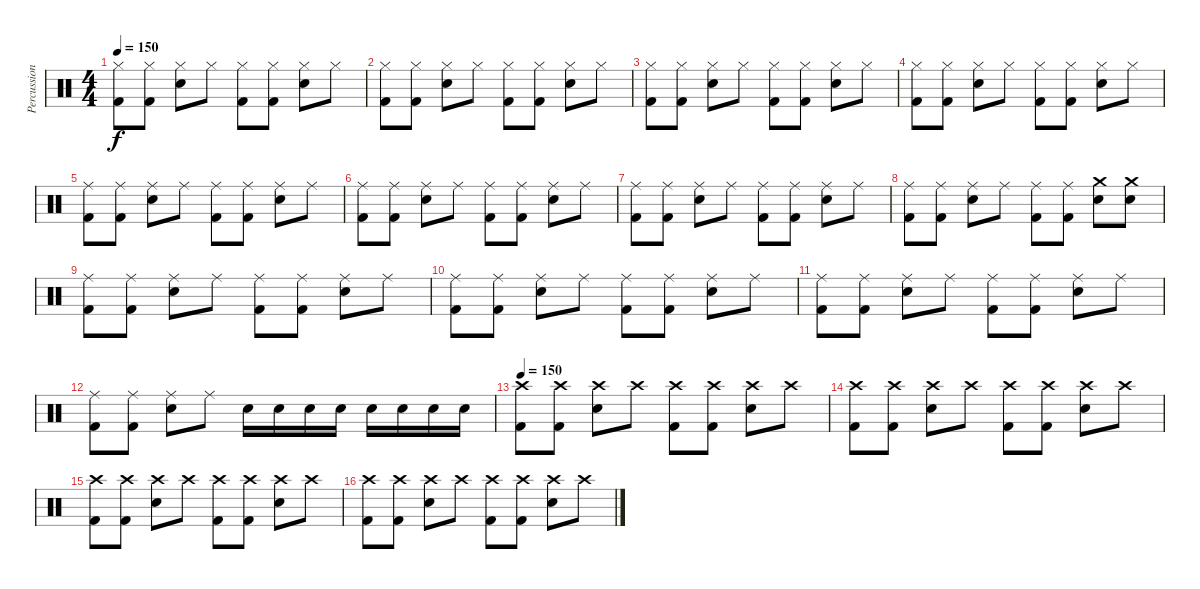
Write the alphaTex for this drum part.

\track ("Percussion" "Percussion") {instrument percussion}
\staff {score}
\articulation defaults
\ts (4 4)
\tempo 150
\clef neutral
\ks c
("Hi-Hat (closed)" "Kick (hit) 2").8{dy f} ("Hi-Hat (closed)" "Kick (hit) 2").8 ("Hi-Hat (closed)" "Electric Snare (hit)").8 "Hi-Hat (closed)".8 ("Hi-Hat (closed)" "Kick (hit) 2").8 ("Hi-Hat (closed)" "Kick (hit) 2").8 ("Hi-Hat (closed)" "Electric Snare (hit)").8 "Hi-Hat (closed)".8 |
("Hi-Hat (closed)" "Kick (hit) 2").8 ("Hi-Hat (closed)" "Kick (hit) 2").8 ("Hi-Hat (closed)" "Electric Snare (hit)").8 "Hi-Hat (closed)".8 ("Hi-Hat (closed)" "Kick (hit) 2").8 ("Hi-Hat (closed)" "Kick (hit) 2").8 ("Hi-Hat (closed)" "Electric Snare (hit)").8 "Hi-Hat (closed)".8 |
("Hi-Hat (closed)" "Kick (hit) 2").8 ("Hi-Hat (closed)" "Kick (hit) 2").8 ("Hi-Hat (closed)" "Electric Snare (hit)").8 "Hi-Hat (closed)".8 ("Hi-Hat (closed)" "Kick (hit) 2").8 ("Hi-Hat (closed)" "Kick (hit) 2").8 ("Hi-Hat (closed)" "Electric Snare (hit)").8 "Hi-Hat (closed)".8 |
("Hi-Hat (closed)" "Kick (hit) 2").8 ("Hi-Hat (closed)" "Kick (hit) 2").8 ("Hi-Hat (closed)" "Electric Snare (hit)").8 "Hi-Hat (closed)".8 ("Hi-Hat (closed)" "Kick (hit) 2").8 ("Hi-Hat (closed)" "Kick (hit) 2").8 ("Hi-Hat (closed)" "Electric Snare (hit)").8 "Hi-Hat (closed)".8 |
("Ride (middle)" "Kick (hit) 2").8 ("Ride (middle)" "Kick (hit) 2").8 ("Ride (middle)" "Electric Snare (hit)").8 "Ride (middle)".8 ("Ride (middle)" "Kick (hit) 2").8 ("Ride (middle)" "Kick (hit) 2").8 ("Ride (middle)" "Electric Snare (hit)").8 "Ride (middle)".8 |
("Ride (middle)" "Kick (hit) 2").8 ("Ride (middle)" "Kick (hit) 2").8 ("Ride (middle)" "Electric Snare (hit)").8 "Ride (middle)".8 ("Ride (middle)" "Kick (hit) 2").8 ("Ride (middle)" "Kick (hit) 2").8 ("Ride (middle)" "Electric Snare (hit)").8 "Ride (middle)".8 |
("Ride (middle)" "Kick (hit) 2").8 ("Ride (middle)" "Kick (hit) 2").8 ("Ride (middle)" "Electric Snare (hit)").8 "Ride (middle)".8 ("Ride (middle)" "Kick (hit) 2").8 ("Ride (middle)" "Kick (hit) 2").8 ("Ride (middle)" "Electric Snare (hit)").8 "Ride (middle)".8 |
("Ride (middle)" "Kick (hit) 2").8 ("Ride (middle)" "Kick (hit) 2").8 ("Ride (middle)" "Electric Snare (hit)").8 "Ride (middle)".8 ("Ride (middle)" "Kick (hit) 2").8 ("Ride (middle)" "Kick (hit) 2").8 ("Crash medium (hit)" "Electric Snare (hit)").8 ("Crash medium (hit)" "Electric Snare (hit)").8 |
("Ride (middle)" "Kick (hit) 2").8 ("Ride (middle)" "Kick (hit) 2").8 ("Ride (middle)" "Electric Snare (hit)").8 "Ride (middle)".8 ("Ride (middle)" "Kick (hit) 2").8 ("Ride (middle)" "Kick (hit) 2").8 ("Ride (middle)" "Electric Snare (hit)").8 "Ride (middle)".8 |
("Ride (middle)" "Kick (hit) 2").8 ("Ride (middle)" "Kick (hit) 2").8 ("Ride (middle)" "Electric Snare (hit)").8 "Ride (middle)".8 ("Ride (middle)" "Kick (hit) 2").8 ("Ride (middle)" "Kick (hit) 2").8 ("Ride (middle)" "Electric Snare (hit)").8 "Ride (middle)".8 |
("Ride (middle)" "Kick (hit) 2").8 ("Ride (middle)" "Kick (hit) 2").8 ("Ride (middle)" "Electric Snare (hit)").8 "Ride (middle)".8 ("Ride (middle)" "Kick (hit) 2").8 ("Ride (middle)" "Kick (hit) 2").8 ("Ride (middle)" "Electric Snare (hit)").8 "Ride (middle)".8 |
("Ride (middle)" "Kick (hit) 2").8 ("Ride (middle)" "Kick (hit) 2").8 ("Ride (middle)" "Electric Snare (hit)").8 "Ride (middle)".8 "Electric Snare (hit)".16 "Electric Snare (hit)".16 "Electric Snare (hit)".16 "Electric Snare (hit)".16 "Electric Snare (hit)".16 "Electric Snare (hit)".16 "Electric Snare (hit)".16 "Electric Snare (hit)".16 |
\tempo 150
("Crash high (hit)" "Kick (hit) 2").8 ("Crash high (hit)" "Kick (hit) 2").8 ("Crash high (hit)" "Electric Snare (hit)").8 "Crash high (hit)".8 ("Crash high (hit)" "Kick (hit) 2").8 ("Crash high (hit)" "Kick (hit) 2").8 ("Crash high (hit)" "Electric Snare (hit)").8 "Crash high (hit)".8 |
("Crash high (hit)" "Kick (hit) 2").8 ("Crash high (hit)" "Kick (hit) 2").8 ("Crash high (hit)" "Electric Snare (hit)").8 "Crash high (hit)".8 ("Crash high (hit)" "Kick (hit) 2").8 ("Crash high (hit)" "Kick (hit) 2").8 ("Crash high (hit)" "Electric Snare (hit)").8 "Crash high (hit)".8 |
("Crash high (hit)" "Kick (hit) 2").8 ("Crash high (hit)" "Kick (hit) 2").8 ("Crash high (hit)" "Electric Snare (hit)").8 "Crash high (hit)".8 ("Crash high (hit)" "Kick (hit) 2").8 ("Crash high (hit)" "Kick (hit) 2").8 ("Crash high (hit)" "Electric Snare (hit)").8 "Crash high (hit)".8 |
("Crash high (hit)" "Kick (hit) 2").8 ("Crash high (hit)" "Kick (hit) 2").8 ("Crash high (hit)" "Electric Snare (hit)").8 "Crash high (hit)".8 ("Crash high (hit)" "Kick (hit) 2").8 ("Crash high (hit)" "Kick (hit) 2").8 ("Crash high (hit)" "Electric Snare (hit)").8 "Crash high (hit)".8
